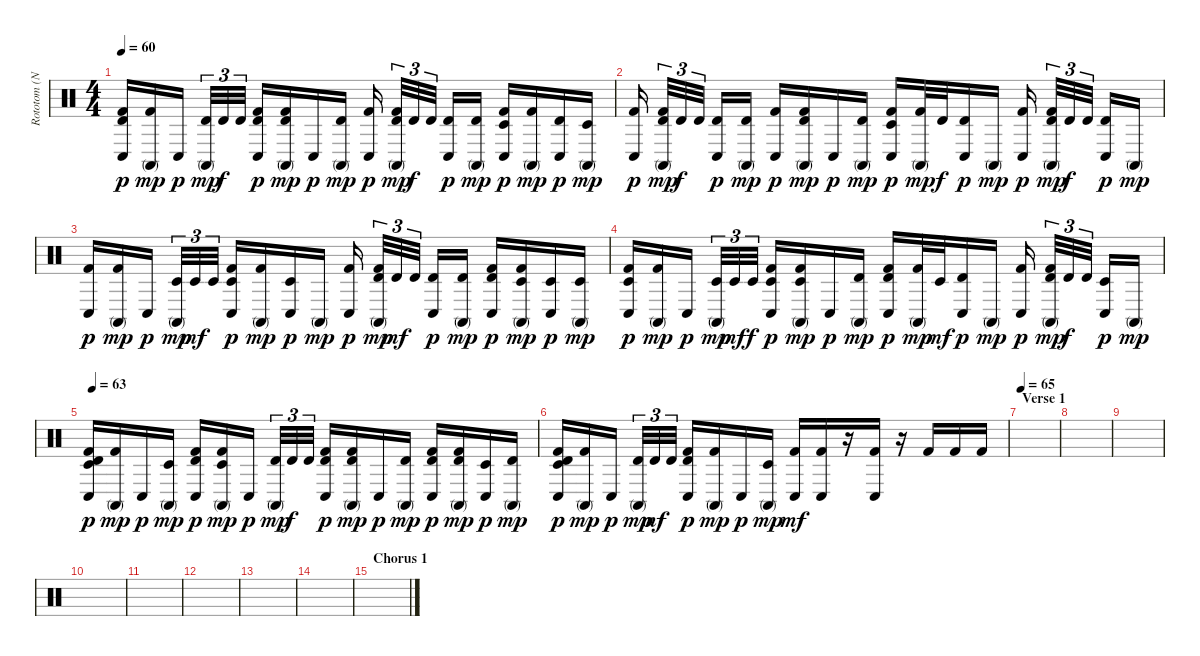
\track ("Rototom (Nick)" "Rototom (N") {instrument percussion}
\staff {score}
\articulation defaults
\ts (4 4)
\tempo 60
\clef neutral
\ks c
("Timbale high (hit)" "Kick (hit) 2" "Conga low (hit)").16{dy p} ("Kick (hit) 2" "Conga high (mute)").16{dy mp} "Conga low (hit)".16{dy p} ("Timbale high (hit)" "Conga high (mute)").32{tu (3 2) dy mp} "Timbale high (hit)".32{tu (3 2) dy f} "Timbale high (hit)".32{tu (3 2)} ("Timbale high (hit)" "Kick (hit) 2" "Conga low (hit)").16{dy p} ("Timbale high (hit)" "Kick (hit) 2" "Conga high (mute)").16{dy mp} "Conga low (hit)".16{dy p} ("Timbale high (hit)" "Conga high (mute)").16{dy mp} ("Kick (hit) 2" "Conga low (hit)").16{dy p} ("Timbale high (hit)" "Kick (hit) 2" "Conga high (mute)").32{tu (3 2) dy mp} "Timbale high (hit)".32{tu (3 2) dy f} "Timbale high (hit)".32{tu (3 2)} ("Timbale high (hit)" "Conga low (hit)").16{dy p} ("Timbale high (hit)" "Conga high (mute)").16{dy mp} ("Timbale low (hit)" "Kick (hit) 2" "Conga low (hit)").16{dy p} ("Kick (hit) 2" "Conga high (mute)").16{dy mp} ("Timbale high (hit)" "Conga low (hit)").16{dy p} ("Timbale low (hit)" "Conga high (mute)").16{dy mp} |
("Kick (hit) 2" "Conga low (hit)").16{dy p} ("Timbale high (hit)" "Kick (hit) 2" "Conga high (mute)").32{tu (3 2) dy mp} "Timbale high (hit)".32{tu (3 2) dy f} "Timbale high (hit)".32{tu (3 2)} ("Timbale high (hit)" "Conga low (hit)").16{dy p} ("Timbale high (hit)" "Conga high (mute)").16{dy mp} ("Kick (hit) 2" "Conga low (hit)").16{dy p} ("Timbale high (hit)" "Kick (hit) 2" "Conga high (mute)").16{dy mp} "Conga low (hit)".16{dy p} ("Timbale high (hit)" "Conga high (mute)").16{dy mp} ("Timbale low (hit)" "Kick (hit) 2" "Conga low (hit)").16{dy p} ("Kick (hit) 2" "Conga high (mute)").32{dy mp} "Timbale high (hit)".32{dy f} ("Timbale high (hit)" "Conga low (hit)").16{dy p} "Conga high (mute)".16{dy mp} ("Kick (hit) 2" "Conga low (hit)").16{dy p} ("Timbale high (hit)" "Kick (hit) 2" "Conga high (mute)").32{tu (3 2) dy mp} "Timbale high (hit)".32{tu (3 2) dy f} "Timbale high (hit)".32{tu (3 2)} ("Timbale high (hit)" "Conga low (hit)").16{dy p} "Conga high (mute)".16{dy mp} |
("Kick (hit) 2" "Conga low (hit)").16{dy p} ("Kick (hit) 2" "Conga high (mute)").16{dy mp} "Conga low (hit)".16{dy p} ("Timbale low (hit)" "Conga high (mute)").32{tu (3 2) dy mp} "Timbale low (hit)".32{tu (3 2) dy mf} "Timbale low (hit)".32{tu (3 2)} ("Timbale low (hit)" "Kick (hit) 2" "Conga low (hit)").16{dy p} ("Kick (hit) 2" "Conga high (mute)").16{dy mp} ("Timbale low (hit)" "Conga low (hit)").16{dy p} "Conga high (mute)".16{dy mp} ("Kick (hit) 2" "Conga low (hit)").16{dy p} ("Timbale high (hit)" "Kick (hit) 2" "Conga high (mute)").32{tu (3 2) dy mp} "Timbale high (hit)".32{tu (3 2) dy mf} "Timbale high (hit)".32{tu (3 2)} ("Timbale high (hit)" "Conga low (hit)").16{dy p} ("Timbale high (hit)" "Conga high (mute)").16{dy mp} ("Timbale high (hit)" "Kick (hit) 2" "Conga low (hit)").16{dy p} ("Timbale low (hit)" "Kick (hit) 2" "Conga high (mute)").16{dy mp} ("Timbale low (hit)" "Conga low (hit)").16{dy p} ("Timbale low (hit)" "Conga high (mute)").16{dy mp} |
("Timbale low (hit)" "Kick (hit) 2" "Conga low (hit)").16{dy p} ("Kick (hit) 2" "Conga high (mute)").16{dy mp} "Conga low (hit)".16{dy p} ("Timbale low (hit)" "Conga high (mute)").32{tu (3 2) dy mp} "Timbale low (hit)".32{tu (3 2) dy mf} "Timbale low (hit)".32{tu (3 2) dy f} ("Timbale low (hit)" "Kick (hit) 2" "Conga low (hit)").16{dy p} ("Timbale low (hit)" "Kick (hit) 2" "Conga high (mute)").16{dy mp} "Conga low (hit)".16{dy p} ("Timbale high (hit)" "Conga high (mute)").16{dy mp} ("Timbale high (hit)" "Kick (hit) 2" "Conga low (hit)").16{dy p} ("Kick (hit) 2" "Conga high (mute)").32{dy mp} "Timbale low (hit)".32{dy mf} ("Timbale high (hit)" "Conga low (hit)").16{dy p} "Conga high (mute)".16{dy mp} ("Kick (hit) 2" "Conga low (hit)").16{dy p} ("Timbale high (hit)" "Kick (hit) 2" "Conga high (mute)").32{tu (3 2) dy mp} "Timbale high (hit)".32{tu (3 2) dy f} "Timbale high (hit)".32{tu (3 2)} ("Timbale low (hit)" "Conga low (hit)").16{dy p} "Conga high (mute)".16{dy mp} |
\tempo 63
("Timbale high (hit)" "Timbale low (hit)" "Kick (hit) 2" "Conga low (hit)").16{dy p} ("Kick (hit) 2" "Conga high (mute)").16{dy mp} "Conga low (hit)".16{dy p} ("Timbale low (hit)" "Conga high (mute)").16{dy mp} ("Timbale high (hit)" "Kick (hit) 2" "Conga low (hit)").16{dy p} ("Timbale low (hit)" "Kick (hit) 2" "Conga high (mute)").16{dy mp} "Conga low (hit)".16{dy p} ("Timbale high (hit)" "Conga high (mute)").32{tu (3 2) dy mp} "Timbale high (hit)".32{tu (3 2) dy f} "Timbale high (hit)".32{tu (3 2)} ("Timbale high (hit)" "Kick (hit) 2" "Conga low (hit)").16{dy p} ("Timbale high (hit)" "Kick (hit) 2" "Conga high (mute)").16{dy mp} "Conga low (hit)".16{dy p} ("Timbale high (hit)" "Conga high (mute)").16{dy mp} ("Timbale high (hit)" "Kick (hit) 2" "Conga low (hit)").16{dy p} ("Timbale high (hit)" "Kick (hit) 2" "Conga high (mute)").16{dy mp} ("Timbale low (hit)" "Conga low (hit)").16{dy p} ("Timbale high (hit)" "Conga high (mute)").16{dy mp} |
("Timbale high (hit)" "Timbale low (hit)" "Kick (hit) 2" "Conga low (hit)").16{dy p} ("Kick (hit) 2" "Conga high (mute)").16{dy mp} "Conga low (hit)".16{dy p} ("Timbale high (hit)" "Conga high (mute)").32{tu (3 2) dy mp} "Timbale high (hit)".32{tu (3 2) dy mf} "Timbale high (hit)".32{tu (3 2)} ("Timbale high (hit)" "Kick (hit) 2" "Conga low (hit)").16{dy p} ("Kick (hit) 2" "Conga high (mute)").16{dy mp} "Conga low (hit)".16{dy p} ("Timbale low (hit)" "Conga high (mute)").16{dy mp} ("Kick (hit) 2" "Conga low (hit)").16{dy mf} ("Kick (hit) 2" "Conga low (hit)").16 r.16 ("Kick (hit) 2" "Conga low (hit)").16 r.16 "Kick (hit) 2".16 "Kick (hit) 2".16 "Kick (hit) 2".16 |
\section ("" "Verse 1")
\tempo 65
|
|
|
|
|
|
|
|
\section ("" "Chorus 1")
